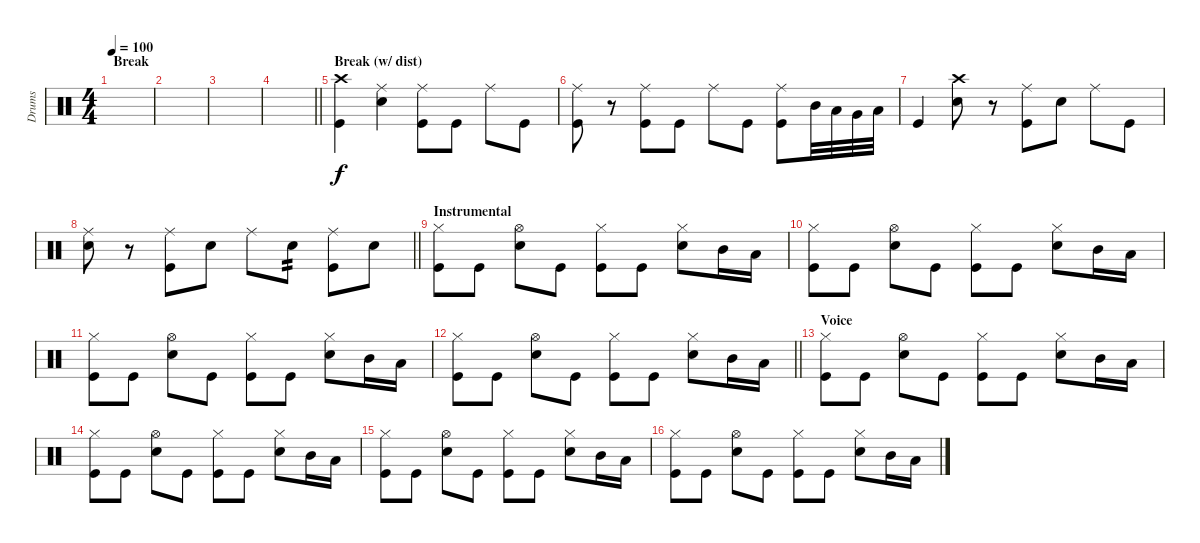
\track ("Drums" "Drums") {instrument percussion}
\staff {score}
\articulation defaults
\ts (4 4)
\section ("" "Break")
\tempo 100
\clef neutral
\ks c
|
|
|
\barLineRight lightlight
|
\section ("" "Break (w/ dist)")
("Crash high (hit)" "Kick (hit)").4 ("Ride (middle)" "Snare (hit) 2").4 ("Ride (middle)" "Kick (hit)").8 "Kick (hit)".8 "Ride (middle)".8 "Kick (hit)".8 |
("Ride (middle)" "Kick (hit)").8 r.8 ("Ride (middle)" "Kick (hit)").8 "Kick (hit)".8 "Ride (middle)".8 "Kick (hit)".8 ("Ride (middle)" "Kick (hit)").8 "Mid Tom (hit)".32 "Low Tom (hit)".32 "Very Low Tom (hit)".32 "Low Floor Tom (hit)".32 |
"Kick (hit)".4 ("Crash high (hit)" "Snare (hit) 2").8 r.8 ("Ride (middle)" "Kick (hit)").8 "Snare (hit) 2".8 "Ride (middle)".8 "Kick (hit)".8 |
\barLineRight lightlight
("Ride (middle)" "Snare (hit) 2").8 r.8 ("Ride (middle)" "Kick (hit)").8 "Snare (hit) 2".8 "Ride (middle)".8 "Snare (hit) 2".8{tp 2} ("Ride (middle)" "Kick (hit)").8 "Snare (hit) 2".8 |
\section ("" "Instrumental")
("Kick (hit)" "Hi-Hat (closed)").8 "Kick (hit)".8 ("Electric Snare (hit)" "Hi-Hat (open)").8 "Kick (hit)".8 ("Kick (hit)" "Hi-Hat (closed)").8 "Kick (hit)".8 ("Electric Snare (hit)" "Hi-Hat (closed)").8 "Mid Tom (hit)".16 "Low Tom (hit)".16 |
("Kick (hit)" "Hi-Hat (closed)").8 "Kick (hit)".8 ("Electric Snare (hit)" "Hi-Hat (open)").8 "Kick (hit)".8 ("Kick (hit)" "Hi-Hat (closed)").8 "Kick (hit)".8 ("Electric Snare (hit)" "Hi-Hat (closed)").8 "Mid Tom (hit)".16 "Low Tom (hit)".16 |
("Kick (hit)" "Hi-Hat (closed)").8 "Kick (hit)".8 ("Electric Snare (hit)" "Hi-Hat (open)").8 "Kick (hit)".8 ("Kick (hit)" "Hi-Hat (closed)").8 "Kick (hit)".8 ("Electric Snare (hit)" "Hi-Hat (closed)").8 "Mid Tom (hit)".16 "Low Tom (hit)".16 |
\barLineRight lightlight
("Kick (hit)" "Hi-Hat (closed)").8 "Kick (hit)".8 ("Electric Snare (hit)" "Hi-Hat (open)").8 "Kick (hit)".8 ("Kick (hit)" "Hi-Hat (closed)").8 "Kick (hit)".8 ("Electric Snare (hit)" "Hi-Hat (closed)").8 "Mid Tom (hit)".16 "Low Tom (hit)".16 |
\section ("" "Voice")
("Kick (hit)" "Hi-Hat (closed)").8 "Kick (hit)".8 ("Electric Snare (hit)" "Hi-Hat (open)").8 "Kick (hit)".8 ("Kick (hit)" "Hi-Hat (closed)").8 "Kick (hit)".8 ("Electric Snare (hit)" "Hi-Hat (closed)").8 "Mid Tom (hit)".16 "Low Tom (hit)".16 |
("Kick (hit)" "Hi-Hat (closed)").8 "Kick (hit)".8 ("Electric Snare (hit)" "Hi-Hat (open)").8 "Kick (hit)".8 ("Kick (hit)" "Hi-Hat (closed)").8 "Kick (hit)".8 ("Electric Snare (hit)" "Hi-Hat (closed)").8 "Mid Tom (hit)".16 "Low Tom (hit)".16 |
("Kick (hit)" "Hi-Hat (closed)").8 "Kick (hit)".8 ("Electric Snare (hit)" "Hi-Hat (open)").8 "Kick (hit)".8 ("Kick (hit)" "Hi-Hat (closed)").8 "Kick (hit)".8 ("Electric Snare (hit)" "Hi-Hat (closed)").8 "Mid Tom (hit)".16 "Low Tom (hit)".16 |
("Kick (hit)" "Hi-Hat (closed)").8 "Kick (hit)".8 ("Electric Snare (hit)" "Hi-Hat (open)").8 "Kick (hit)".8 ("Kick (hit)" "Hi-Hat (closed)").8 "Kick (hit)".8 ("Electric Snare (hit)" "Hi-Hat (closed)").8 "Mid Tom (hit)".16 "Low Tom (hit)".16
